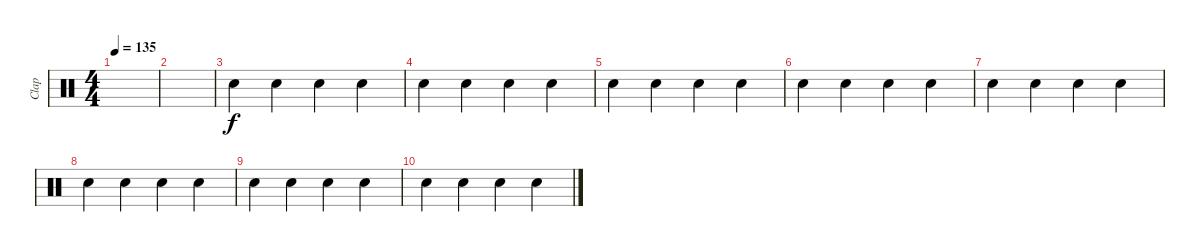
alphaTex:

\track ("Clap" "Clap") {instrument percussion}
\staff {score}
\articulation defaults
\ts (4 4)
\tempo 135
\clef neutral
\ks c
|
|
"Hand Clap (hit)".4 "Hand Clap (hit)".4 "Hand Clap (hit)".4 "Hand Clap (hit)".4 |
"Hand Clap (hit)".4 "Hand Clap (hit)".4 "Hand Clap (hit)".4 "Hand Clap (hit)".4 |
"Hand Clap (hit)".4 "Hand Clap (hit)".4 "Hand Clap (hit)".4 "Hand Clap (hit)".4 |
"Hand Clap (hit)".4 "Hand Clap (hit)".4 "Hand Clap (hit)".4 "Hand Clap (hit)".4 |
"Hand Clap (hit)".4 "Hand Clap (hit)".4 "Hand Clap (hit)".4 "Hand Clap (hit)".4 |
"Hand Clap (hit)".4 "Hand Clap (hit)".4 "Hand Clap (hit)".4 "Hand Clap (hit)".4 |
"Hand Clap (hit)".4 "Hand Clap (hit)".4 "Hand Clap (hit)".4 "Hand Clap (hit)".4 |
"Hand Clap (hit)".4 "Hand Clap (hit)".4 "Hand Clap (hit)".4 "Hand Clap (hit)".4
